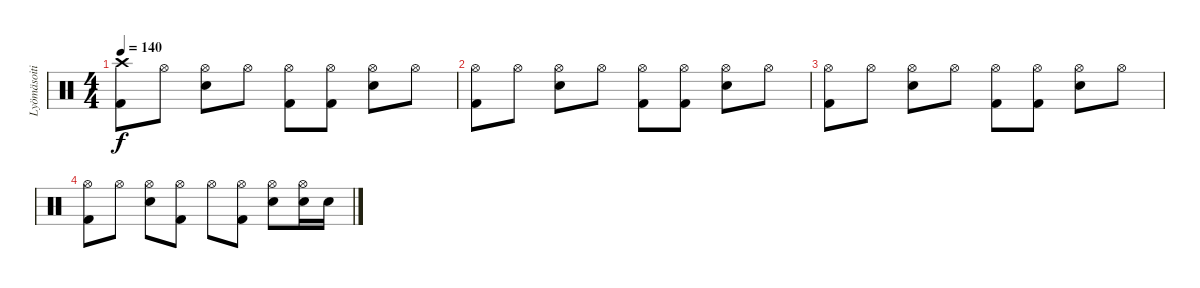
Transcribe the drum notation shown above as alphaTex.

\track ("Lyömäsoitin" "Lyömäsoiti") {instrument percussion}
\staff {score}
\articulation defaults
\ts (4 4)
\tempo 140
\clef neutral
\ks c
("Crash high (hit)" "Kick (hit) 2").8{dy f} "Hi-Hat (open)".8 ("Hi-Hat (open)" "Snare (hit) 2").8 "Hi-Hat (open)".8 ("Hi-Hat (open)" "Kick (hit) 2").8 ("Hi-Hat (open)" "Kick (hit) 2").8 ("Hi-Hat (open)" "Snare (hit) 2").8 "Hi-Hat (open)".8 |
("Hi-Hat (open)" "Kick (hit) 2").8 "Hi-Hat (open)".8 ("Hi-Hat (open)" "Snare (hit) 2").8 "Hi-Hat (open)".8 ("Hi-Hat (open)" "Kick (hit) 2").8 ("Hi-Hat (open)" "Kick (hit) 2").8 ("Hi-Hat (open)" "Snare (hit) 2").8 "Hi-Hat (open)".8 |
("Hi-Hat (open)" "Kick (hit) 2").8 "Hi-Hat (open)".8 ("Hi-Hat (open)" "Snare (hit) 2").8 "Hi-Hat (open)".8 ("Hi-Hat (open)" "Kick (hit) 2").8 ("Hi-Hat (open)" "Kick (hit) 2").8 ("Hi-Hat (open)" "Snare (hit) 2").8 "Hi-Hat (open)".8 |
("Hi-Hat (open)" "Kick (hit) 2").8 "Hi-Hat (open)".8 ("Hi-Hat (open)" "Snare (hit) 2").8 ("Hi-Hat (open)" "Kick (hit) 2").8 "Hi-Hat (open)".8 ("Hi-Hat (open)" "Kick (hit) 2").8 ("Hi-Hat (open)" "Snare (hit) 2").8 ("Hi-Hat (open)" "Snare (hit) 2").16 "Snare (hit) 2".16
